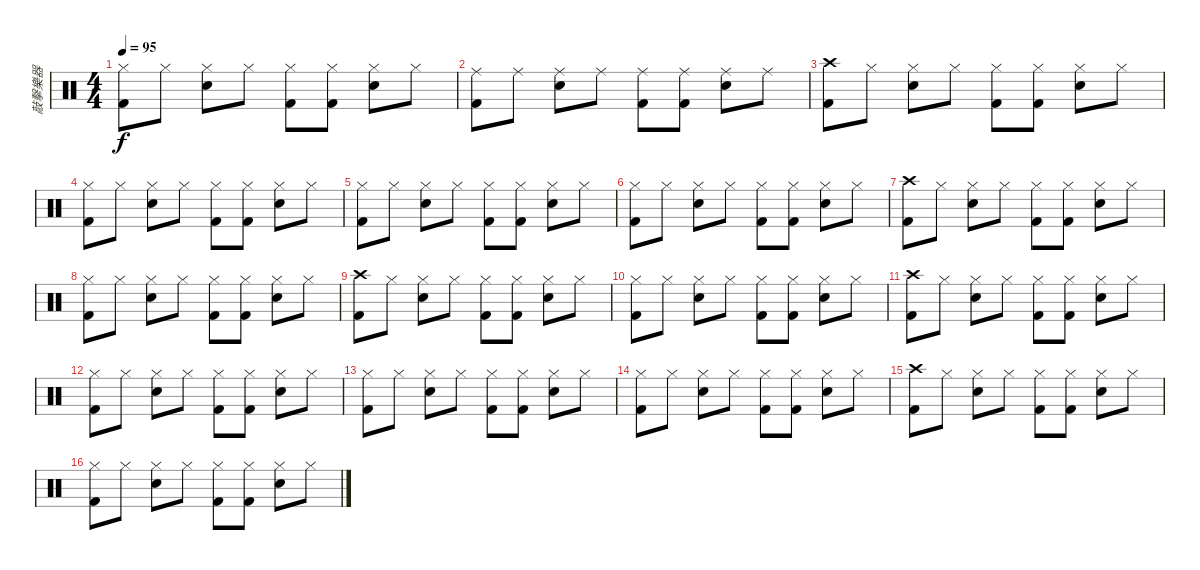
\track ("敲擊樂器" "敲擊樂器") {instrument percussion}
\staff {score}
\articulation defaults
\ts (4 4)
\tempo 95
\clef neutral
\ks c
("Hi-Hat (closed)" "Kick (hit) 2").8{dy f} "Hi-Hat (closed)".8 ("Hi-Hat (closed)" "Snare (hit) 2").8 "Hi-Hat (closed)".8 ("Hi-Hat (closed)" "Kick (hit) 2").8 ("Hi-Hat (closed)" "Kick (hit) 2").8 ("Hi-Hat (closed)" "Snare (hit) 2").8 "Hi-Hat (closed)".8 |
("Ride (middle)" "Kick (hit) 2").8 "Ride (middle)".8 ("Ride (middle)" "Snare (hit) 2").8 "Ride (middle)".8 ("Ride (middle)" "Kick (hit) 2").8 ("Ride (middle)" "Kick (hit) 2").8 ("Ride (middle)" "Snare (hit) 2").8 "Ride (middle)".8 |
("Crash high (hit)" "Kick (hit) 2").8 "Hi-Hat (closed)".8 ("Hi-Hat (closed)" "Snare (hit) 2").8 "Hi-Hat (closed)".8 ("Hi-Hat (closed)" "Kick (hit) 2").8 ("Hi-Hat (closed)" "Kick (hit) 2").8 ("Hi-Hat (closed)" "Snare (hit) 2").8 "Hi-Hat (closed)".8 |
("Hi-Hat (closed)" "Kick (hit) 2").8 "Hi-Hat (closed)".8 ("Hi-Hat (closed)" "Snare (hit) 2").8 "Hi-Hat (closed)".8 ("Hi-Hat (closed)" "Kick (hit) 2").8 ("Hi-Hat (closed)" "Kick (hit) 2").8 ("Hi-Hat (closed)" "Snare (hit) 2").8 "Hi-Hat (closed)".8 |
("Hi-Hat (closed)" "Kick (hit) 2").8 "Hi-Hat (closed)".8 ("Hi-Hat (closed)" "Snare (hit) 2").8 "Hi-Hat (closed)".8 ("Hi-Hat (closed)" "Kick (hit) 2").8 ("Hi-Hat (closed)" "Kick (hit) 2").8 ("Hi-Hat (closed)" "Snare (hit) 2").8 "Hi-Hat (closed)".8 |
("Hi-Hat (closed)" "Kick (hit) 2").8 "Hi-Hat (closed)".8 ("Hi-Hat (closed)" "Snare (hit) 2").8 "Hi-Hat (closed)".8 ("Hi-Hat (closed)" "Kick (hit) 2").8 ("Hi-Hat (closed)" "Kick (hit) 2").8 ("Hi-Hat (closed)" "Snare (hit) 2").8 "Hi-Hat (closed)".8 |
("Crash high (hit)" "Kick (hit) 2").8 "Hi-Hat (closed)".8 ("Hi-Hat (closed)" "Snare (hit) 2").8 "Hi-Hat (closed)".8 ("Hi-Hat (closed)" "Kick (hit) 2").8 ("Hi-Hat (closed)" "Kick (hit) 2").8 ("Hi-Hat (closed)" "Snare (hit) 2").8 "Hi-Hat (closed)".8 |
("Hi-Hat (closed)" "Kick (hit) 2").8 "Hi-Hat (closed)".8 ("Hi-Hat (closed)" "Snare (hit) 2").8 "Hi-Hat (closed)".8 ("Hi-Hat (closed)" "Kick (hit) 2").8 ("Hi-Hat (closed)" "Kick (hit) 2").8 ("Hi-Hat (closed)" "Snare (hit) 2").8 "Hi-Hat (closed)".8 |
("Crash high (hit)" "Kick (hit) 2").8 "Hi-Hat (closed)".8 ("Hi-Hat (closed)" "Snare (hit) 2").8 "Hi-Hat (closed)".8 ("Hi-Hat (closed)" "Kick (hit) 2").8 ("Hi-Hat (closed)" "Kick (hit) 2").8 ("Hi-Hat (closed)" "Snare (hit) 2").8 "Hi-Hat (closed)".8 |
("Hi-Hat (closed)" "Kick (hit) 2").8 "Hi-Hat (closed)".8 ("Hi-Hat (closed)" "Snare (hit) 2").8 "Hi-Hat (closed)".8 ("Hi-Hat (closed)" "Kick (hit) 2").8 ("Hi-Hat (closed)" "Kick (hit) 2").8 ("Hi-Hat (closed)" "Snare (hit) 2").8 "Hi-Hat (closed)".8 |
("Crash high (hit)" "Kick (hit) 2").8 "Hi-Hat (closed)".8 ("Hi-Hat (closed)" "Snare (hit) 2").8 "Hi-Hat (closed)".8 ("Hi-Hat (closed)" "Kick (hit) 2").8 ("Hi-Hat (closed)" "Kick (hit) 2").8 ("Hi-Hat (closed)" "Snare (hit) 2").8 "Hi-Hat (closed)".8 |
("Hi-Hat (closed)" "Kick (hit) 2").8 "Hi-Hat (closed)".8 ("Hi-Hat (closed)" "Snare (hit) 2").8 "Hi-Hat (closed)".8 ("Hi-Hat (closed)" "Kick (hit) 2").8 ("Hi-Hat (closed)" "Kick (hit) 2").8 ("Hi-Hat (closed)" "Snare (hit) 2").8 "Hi-Hat (closed)".8 |
("Hi-Hat (closed)" "Kick (hit) 2").8 "Hi-Hat (closed)".8 ("Hi-Hat (closed)" "Snare (hit) 2").8 "Hi-Hat (closed)".8 ("Hi-Hat (closed)" "Kick (hit) 2").8 ("Hi-Hat (closed)" "Kick (hit) 2").8 ("Hi-Hat (closed)" "Snare (hit) 2").8 "Hi-Hat (closed)".8 |
("Hi-Hat (closed)" "Kick (hit) 2").8 "Hi-Hat (closed)".8 ("Hi-Hat (closed)" "Snare (hit) 2").8 "Hi-Hat (closed)".8 ("Hi-Hat (closed)" "Kick (hit) 2").8 ("Hi-Hat (closed)" "Kick (hit) 2").8 ("Hi-Hat (closed)" "Snare (hit) 2").8 "Hi-Hat (closed)".8 |
("Crash high (hit)" "Kick (hit) 2").8 "Hi-Hat (closed)".8 ("Hi-Hat (closed)" "Snare (hit) 2").8 "Hi-Hat (closed)".8 ("Hi-Hat (closed)" "Kick (hit) 2").8 ("Hi-Hat (closed)" "Kick (hit) 2").8 ("Hi-Hat (closed)" "Snare (hit) 2").8 "Hi-Hat (closed)".8 |
("Hi-Hat (closed)" "Kick (hit) 2").8 "Hi-Hat (closed)".8 ("Hi-Hat (closed)" "Snare (hit) 2").8 "Hi-Hat (closed)".8 ("Hi-Hat (closed)" "Kick (hit) 2").8 ("Hi-Hat (closed)" "Kick (hit) 2").8 ("Hi-Hat (closed)" "Snare (hit) 2").8 "Hi-Hat (closed)".8
